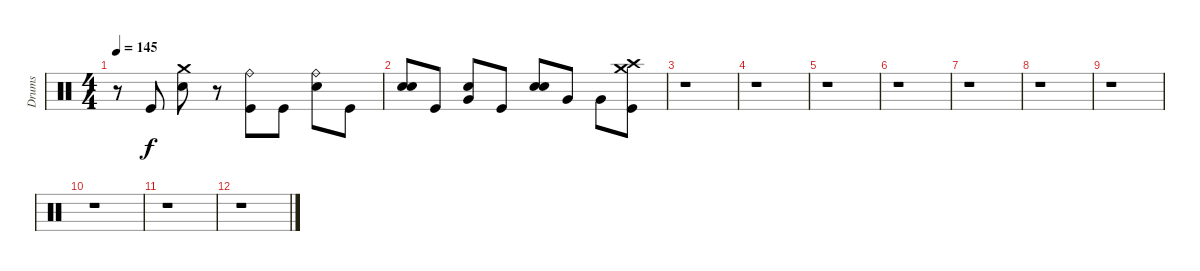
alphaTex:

\track ("Drums" "Drums") {instrument percussion}
\staff {score}
\articulation defaults
\ts (4 4)
\tempo 145
\clef neutral
\ks c
r.8{dy f} "Kick (hit)".8 ("Crash medium (hit)" "Snare (hit) 2").8 r.8 ("Ride (bell)" "Kick (hit)").8 "Kick (hit)".8 ("Ride (bell)" "Snare (hit) 2").8 "Kick (hit)".8 |
("Snare (hit) 2" "Snare (hit) 2").8 "Kick (hit)".8 ("Very Low Tom (hit)" "Snare (hit) 2").8 "Kick (hit)".8 ("Snare (hit) 2" "Snare (hit) 2").8 "Very Low Tom (hit)".8 "Very Low Tom (hit)".8 ("Crash medium (hit)" "Crash high (hit)" "Kick (hit)").8 |
r.1 |
r.1 |
r.1 |
r.1 |
r.1 |
r.1 |
r.1 |
r.1 |
r.1 |
r.1
